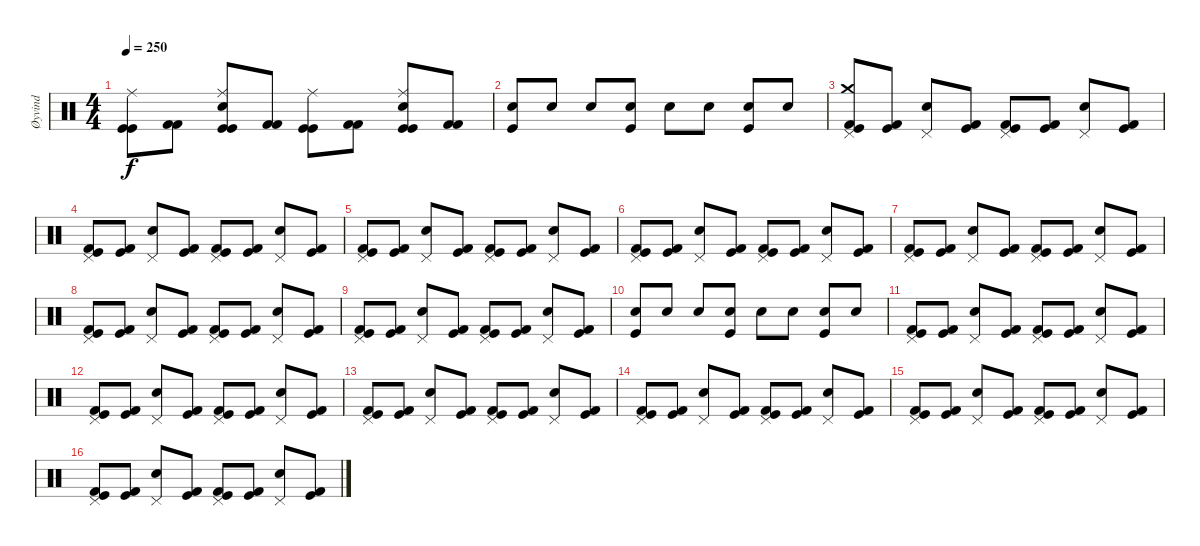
\track ("Øyvind" "Øyvind") {instrument percussion}
\staff {score}
\articulation defaults
\ts (4 4)
\tempo 250
\clef neutral
\ks c
("Kick (hit)" "Ride (middle)" "Kick (hit)").8{dy f} ("Kick (hit) 2" "Kick (hit) 2").8 ("Kick (hit)" "Snare (hit) 2" "Ride (middle)" "Kick (hit)").8 ("Kick (hit) 2" "Kick (hit) 2").8 ("Kick (hit)" "Ride (middle)" "Kick (hit)").8 ("Kick (hit) 2" "Kick (hit) 2").8 ("Kick (hit)" "Snare (hit) 2" "Ride (middle)" "Kick (hit)").8 ("Kick (hit) 2" "Kick (hit) 2").8 |
("Kick (hit)" "Snare (hit) 2").8 "Snare (hit) 2".8 "Snare (hit) 2".8 ("Kick (hit)" "Snare (hit) 2").8 "Snare (hit) 2".8 "Snare (hit) 2".8 ("Kick (hit)" "Snare (hit) 2").8 "Snare (hit) 2".8 |
("Kick (hit) 2" "Crash medium (hit)" "Pedal Hi-Hat (hit)" "Kick (hit)").8 ("Kick (hit) 2" "Kick (hit)").8 ("Snare (hit) 2" "Pedal Hi-Hat (hit)").8 ("Kick (hit) 2" "Kick (hit)").8 ("Kick (hit) 2" "Pedal Hi-Hat (hit)" "Kick (hit)").8 ("Kick (hit) 2" "Kick (hit)").8 ("Snare (hit) 2" "Pedal Hi-Hat (hit)").8 ("Kick (hit) 2" "Kick (hit)").8 |
("Kick (hit) 2" "Pedal Hi-Hat (hit)" "Kick (hit)").8 ("Kick (hit) 2" "Kick (hit)").8 ("Snare (hit) 2" "Pedal Hi-Hat (hit)").8 ("Kick (hit) 2" "Kick (hit)").8 ("Kick (hit) 2" "Pedal Hi-Hat (hit)" "Kick (hit)").8 ("Kick (hit) 2" "Kick (hit)").8 ("Snare (hit) 2" "Pedal Hi-Hat (hit)").8 ("Kick (hit) 2" "Kick (hit)").8 |
("Kick (hit) 2" "Pedal Hi-Hat (hit)" "Kick (hit)").8 ("Kick (hit) 2" "Kick (hit)").8 ("Snare (hit) 2" "Pedal Hi-Hat (hit)").8 ("Kick (hit) 2" "Kick (hit)").8 ("Kick (hit) 2" "Pedal Hi-Hat (hit)" "Kick (hit)").8 ("Kick (hit) 2" "Kick (hit)").8 ("Snare (hit) 2" "Pedal Hi-Hat (hit)").8 ("Kick (hit) 2" "Kick (hit)").8 |
("Kick (hit) 2" "Pedal Hi-Hat (hit)" "Kick (hit)").8 ("Kick (hit) 2" "Kick (hit)").8 ("Snare (hit) 2" "Pedal Hi-Hat (hit)").8 ("Kick (hit) 2" "Kick (hit)").8 ("Kick (hit) 2" "Pedal Hi-Hat (hit)" "Kick (hit)").8 ("Kick (hit) 2" "Kick (hit)").8 ("Snare (hit) 2" "Pedal Hi-Hat (hit)").8 ("Kick (hit) 2" "Kick (hit)").8 |
("Kick (hit) 2" "Pedal Hi-Hat (hit)" "Kick (hit)").8 ("Kick (hit) 2" "Kick (hit)").8 ("Snare (hit) 2" "Pedal Hi-Hat (hit)").8 ("Kick (hit) 2" "Kick (hit)").8 ("Kick (hit) 2" "Pedal Hi-Hat (hit)" "Kick (hit)").8 ("Kick (hit) 2" "Kick (hit)").8 ("Snare (hit) 2" "Pedal Hi-Hat (hit)").8 ("Kick (hit) 2" "Kick (hit)").8 |
("Kick (hit) 2" "Pedal Hi-Hat (hit)" "Kick (hit)").8 ("Kick (hit) 2" "Kick (hit)").8 ("Snare (hit) 2" "Pedal Hi-Hat (hit)").8 ("Kick (hit) 2" "Kick (hit)").8 ("Kick (hit) 2" "Pedal Hi-Hat (hit)" "Kick (hit)").8 ("Kick (hit) 2" "Kick (hit)").8 ("Snare (hit) 2" "Pedal Hi-Hat (hit)").8 ("Kick (hit) 2" "Kick (hit)").8 |
("Kick (hit) 2" "Pedal Hi-Hat (hit)" "Kick (hit)").8 ("Kick (hit) 2" "Kick (hit)").8 ("Snare (hit) 2" "Pedal Hi-Hat (hit)").8 ("Kick (hit) 2" "Kick (hit)").8 ("Kick (hit) 2" "Pedal Hi-Hat (hit)" "Kick (hit)").8 ("Kick (hit) 2" "Kick (hit)").8 ("Snare (hit) 2" "Pedal Hi-Hat (hit)").8 ("Kick (hit) 2" "Kick (hit)").8 |
("Kick (hit)" "Snare (hit) 2").8 "Snare (hit) 2".8 "Snare (hit) 2".8 ("Kick (hit)" "Snare (hit) 2").8 "Snare (hit) 2".8 "Snare (hit) 2".8 ("Kick (hit)" "Snare (hit) 2").8 "Snare (hit) 2".8 |
("Kick (hit) 2" "Pedal Hi-Hat (hit)" "Kick (hit)").8 ("Kick (hit) 2" "Kick (hit)").8 ("Snare (hit) 2" "Pedal Hi-Hat (hit)").8 ("Kick (hit) 2" "Kick (hit)").8 ("Kick (hit) 2" "Pedal Hi-Hat (hit)" "Kick (hit)").8 ("Kick (hit) 2" "Kick (hit)").8 ("Snare (hit) 2" "Pedal Hi-Hat (hit)").8 ("Kick (hit) 2" "Kick (hit)").8 |
("Kick (hit) 2" "Pedal Hi-Hat (hit)" "Kick (hit)").8 ("Kick (hit) 2" "Kick (hit)").8 ("Snare (hit) 2" "Pedal Hi-Hat (hit)").8 ("Kick (hit) 2" "Kick (hit)").8 ("Kick (hit) 2" "Pedal Hi-Hat (hit)" "Kick (hit)").8 ("Kick (hit) 2" "Kick (hit)").8 ("Snare (hit) 2" "Pedal Hi-Hat (hit)").8 ("Kick (hit) 2" "Kick (hit)").8 |
("Kick (hit) 2" "Pedal Hi-Hat (hit)" "Kick (hit)").8 ("Kick (hit) 2" "Kick (hit)").8 ("Snare (hit) 2" "Pedal Hi-Hat (hit)").8 ("Kick (hit) 2" "Kick (hit)").8 ("Kick (hit) 2" "Pedal Hi-Hat (hit)" "Kick (hit)").8 ("Kick (hit) 2" "Kick (hit)").8 ("Snare (hit) 2" "Pedal Hi-Hat (hit)").8 ("Kick (hit) 2" "Kick (hit)").8 |
("Kick (hit) 2" "Pedal Hi-Hat (hit)" "Kick (hit)").8 ("Kick (hit) 2" "Kick (hit)").8 ("Snare (hit) 2" "Pedal Hi-Hat (hit)").8 ("Kick (hit) 2" "Kick (hit)").8 ("Kick (hit) 2" "Pedal Hi-Hat (hit)" "Kick (hit)").8 ("Kick (hit) 2" "Kick (hit)").8 ("Snare (hit) 2" "Pedal Hi-Hat (hit)").8 ("Kick (hit) 2" "Kick (hit)").8 |
("Kick (hit) 2" "Pedal Hi-Hat (hit)" "Kick (hit)").8 ("Kick (hit) 2" "Kick (hit)").8 ("Snare (hit) 2" "Pedal Hi-Hat (hit)").8 ("Kick (hit) 2" "Kick (hit)").8 ("Kick (hit) 2" "Pedal Hi-Hat (hit)" "Kick (hit)").8 ("Kick (hit) 2" "Kick (hit)").8 ("Snare (hit) 2" "Pedal Hi-Hat (hit)").8 ("Kick (hit) 2" "Kick (hit)").8 |
("Kick (hit) 2" "Pedal Hi-Hat (hit)" "Kick (hit)").8 ("Kick (hit) 2" "Kick (hit)").8 ("Snare (hit) 2" "Pedal Hi-Hat (hit)").8 ("Kick (hit) 2" "Kick (hit)").8 ("Kick (hit) 2" "Pedal Hi-Hat (hit)" "Kick (hit)").8 ("Kick (hit) 2" "Kick (hit)").8 ("Snare (hit) 2" "Pedal Hi-Hat (hit)").8 ("Kick (hit) 2" "Kick (hit)").8
